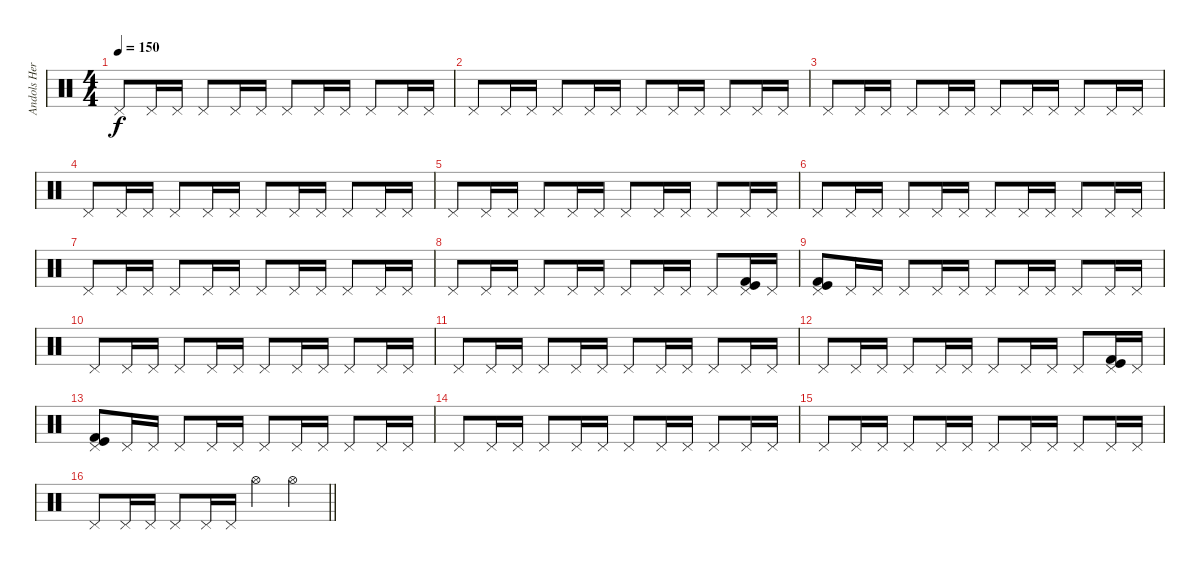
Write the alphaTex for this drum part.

\track ("Andols Herrick" "Andols Her") {instrument percussion}
\staff {score}
\articulation defaults
\ts (4 4)
\tempo 150
\clef neutral
\ks c "Pedal Hi-Hat (hit)".8{dy f} "Pedal Hi-Hat (hit)".16 "Pedal Hi-Hat (hit)".16 "Pedal Hi-Hat (hit)".8 "Pedal Hi-Hat (hit)".16 "Pedal Hi-Hat (hit)".16 "Pedal Hi-Hat (hit)".8 "Pedal Hi-Hat (hit)".16 "Pedal Hi-Hat (hit)".16 "Pedal Hi-Hat (hit)".8 "Pedal Hi-Hat (hit)".16 "Pedal Hi-Hat (hit)".16
|
"Pedal Hi-Hat (hit)".8 "Pedal Hi-Hat (hit)".16 "Pedal Hi-Hat (hit)".16 "Pedal Hi-Hat (hit)".8 "Pedal Hi-Hat (hit)".16 "Pedal Hi-Hat (hit)".16 "Pedal Hi-Hat (hit)".8 "Pedal Hi-Hat (hit)".16 "Pedal Hi-Hat (hit)".16 "Pedal Hi-Hat (hit)".8 "Pedal Hi-Hat (hit)".16 "Pedal Hi-Hat (hit)".16 |
"Pedal Hi-Hat (hit)".8 "Pedal Hi-Hat (hit)".16 "Pedal Hi-Hat (hit)".16 "Pedal Hi-Hat (hit)".8 "Pedal Hi-Hat (hit)".16 "Pedal Hi-Hat (hit)".16 "Pedal Hi-Hat (hit)".8 "Pedal Hi-Hat (hit)".16 "Pedal Hi-Hat (hit)".16 "Pedal Hi-Hat (hit)".8 "Pedal Hi-Hat (hit)".16 "Pedal Hi-Hat (hit)".16 |
"Pedal Hi-Hat (hit)".8 "Pedal Hi-Hat (hit)".16 "Pedal Hi-Hat (hit)".16 "Pedal Hi-Hat (hit)".8 "Pedal Hi-Hat (hit)".16 "Pedal Hi-Hat (hit)".16 "Pedal Hi-Hat (hit)".8 "Pedal Hi-Hat (hit)".16 "Pedal Hi-Hat (hit)".16 "Pedal Hi-Hat (hit)".8 "Pedal Hi-Hat (hit)".16 "Pedal Hi-Hat (hit)".16 |
"Pedal Hi-Hat (hit)".8 "Pedal Hi-Hat (hit)".16 "Pedal Hi-Hat (hit)".16 "Pedal Hi-Hat (hit)".8 "Pedal Hi-Hat (hit)".16 "Pedal Hi-Hat (hit)".16 "Pedal Hi-Hat (hit)".8 "Pedal Hi-Hat (hit)".16 "Pedal Hi-Hat (hit)".16 "Pedal Hi-Hat (hit)".8 "Pedal Hi-Hat (hit)".16 "Pedal Hi-Hat (hit)".16 |
"Pedal Hi-Hat (hit)".8 "Pedal Hi-Hat (hit)".16 "Pedal Hi-Hat (hit)".16 "Pedal Hi-Hat (hit)".8 "Pedal Hi-Hat (hit)".16 "Pedal Hi-Hat (hit)".16 "Pedal Hi-Hat (hit)".8 "Pedal Hi-Hat (hit)".16 "Pedal Hi-Hat (hit)".16 "Pedal Hi-Hat (hit)".8 "Pedal Hi-Hat (hit)".16 "Pedal Hi-Hat (hit)".16 |
"Pedal Hi-Hat (hit)".8 "Pedal Hi-Hat (hit)".16 "Pedal Hi-Hat (hit)".16 "Pedal Hi-Hat (hit)".8 "Pedal Hi-Hat (hit)".16 "Pedal Hi-Hat (hit)".16 "Pedal Hi-Hat (hit)".8 "Pedal Hi-Hat (hit)".16 "Pedal Hi-Hat (hit)".16 "Pedal Hi-Hat (hit)".8 "Pedal Hi-Hat (hit)".16 "Pedal Hi-Hat (hit)".16 |
"Pedal Hi-Hat (hit)".8 "Pedal Hi-Hat (hit)".16 "Pedal Hi-Hat (hit)".16 "Pedal Hi-Hat (hit)".8 "Pedal Hi-Hat (hit)".16 "Pedal Hi-Hat (hit)".16 "Pedal Hi-Hat (hit)".8 "Pedal Hi-Hat (hit)".16 "Pedal Hi-Hat (hit)".16 "Pedal Hi-Hat (hit)".8 ("Pedal Hi-Hat (hit)" "Kick (hit)" "Kick (hit) 2").16 "Pedal Hi-Hat (hit)".16 |
("Pedal Hi-Hat (hit)" "Kick (hit)" "Kick (hit) 2").8 "Pedal Hi-Hat (hit)".16 "Pedal Hi-Hat (hit)".16 "Pedal Hi-Hat (hit)".8 "Pedal Hi-Hat (hit)".16 "Pedal Hi-Hat (hit)".16 "Pedal Hi-Hat (hit)".8 "Pedal Hi-Hat (hit)".16 "Pedal Hi-Hat (hit)".16 "Pedal Hi-Hat (hit)".8 "Pedal Hi-Hat (hit)".16 "Pedal Hi-Hat (hit)".16 |
"Pedal Hi-Hat (hit)".8 "Pedal Hi-Hat (hit)".16 "Pedal Hi-Hat (hit)".16 "Pedal Hi-Hat (hit)".8 "Pedal Hi-Hat (hit)".16 "Pedal Hi-Hat (hit)".16 "Pedal Hi-Hat (hit)".8 "Pedal Hi-Hat (hit)".16 "Pedal Hi-Hat (hit)".16 "Pedal Hi-Hat (hit)".8 "Pedal Hi-Hat (hit)".16 "Pedal Hi-Hat (hit)".16 |
"Pedal Hi-Hat (hit)".8 "Pedal Hi-Hat (hit)".16 "Pedal Hi-Hat (hit)".16 "Pedal Hi-Hat (hit)".8 "Pedal Hi-Hat (hit)".16 "Pedal Hi-Hat (hit)".16 "Pedal Hi-Hat (hit)".8 "Pedal Hi-Hat (hit)".16 "Pedal Hi-Hat (hit)".16 "Pedal Hi-Hat (hit)".8 "Pedal Hi-Hat (hit)".16 "Pedal Hi-Hat (hit)".16 |
"Pedal Hi-Hat (hit)".8 "Pedal Hi-Hat (hit)".16 "Pedal Hi-Hat (hit)".16 "Pedal Hi-Hat (hit)".8 "Pedal Hi-Hat (hit)".16 "Pedal Hi-Hat (hit)".16 "Pedal Hi-Hat (hit)".8 "Pedal Hi-Hat (hit)".16 "Pedal Hi-Hat (hit)".16 "Pedal Hi-Hat (hit)".8 ("Pedal Hi-Hat (hit)" "Kick (hit)" "Kick (hit) 2").16 "Pedal Hi-Hat (hit)".16 |
("Pedal Hi-Hat (hit)" "Kick (hit)" "Kick (hit) 2").8 "Pedal Hi-Hat (hit)".16 "Pedal Hi-Hat (hit)".16 "Pedal Hi-Hat (hit)".8 "Pedal Hi-Hat (hit)".16 "Pedal Hi-Hat (hit)".16 "Pedal Hi-Hat (hit)".8 "Pedal Hi-Hat (hit)".16 "Pedal Hi-Hat (hit)".16 "Pedal Hi-Hat (hit)".8 "Pedal Hi-Hat (hit)".16 "Pedal Hi-Hat (hit)".16 |
"Pedal Hi-Hat (hit)".8 "Pedal Hi-Hat (hit)".16 "Pedal Hi-Hat (hit)".16 "Pedal Hi-Hat (hit)".8 "Pedal Hi-Hat (hit)".16 "Pedal Hi-Hat (hit)".16 "Pedal Hi-Hat (hit)".8 "Pedal Hi-Hat (hit)".16 "Pedal Hi-Hat (hit)".16 "Pedal Hi-Hat (hit)".8 "Pedal Hi-Hat (hit)".16 "Pedal Hi-Hat (hit)".16 |
"Pedal Hi-Hat (hit)".8 "Pedal Hi-Hat (hit)".16 "Pedal Hi-Hat (hit)".16 "Pedal Hi-Hat (hit)".8 "Pedal Hi-Hat (hit)".16 "Pedal Hi-Hat (hit)".16 "Pedal Hi-Hat (hit)".8 "Pedal Hi-Hat (hit)".16 "Pedal Hi-Hat (hit)".16 "Pedal Hi-Hat (hit)".8 "Pedal Hi-Hat (hit)".16 "Pedal Hi-Hat (hit)".16 |
\barLineRight lightlight "Pedal Hi-Hat (hit)".8 "Pedal Hi-Hat (hit)".16 "Pedal Hi-Hat (hit)".16 "Pedal Hi-Hat (hit)".8 "Pedal Hi-Hat (hit)".16 "Pedal Hi-Hat (hit)".16 "Hi-Hat (open)".4 "Hi-Hat (open)".4
